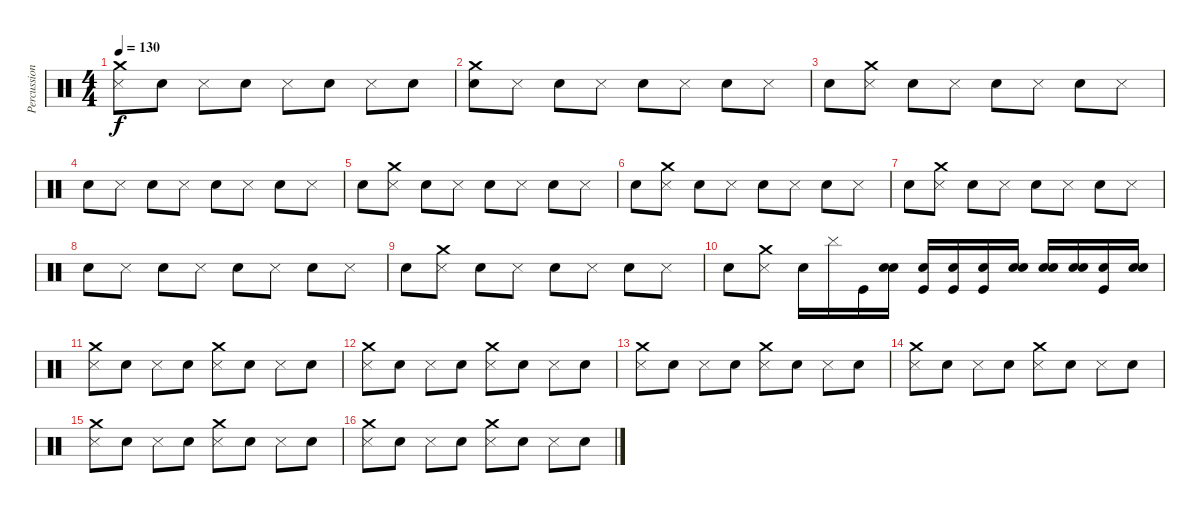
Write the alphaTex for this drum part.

\track ("Percussion" "Percussion") {instrument percussion}
\staff {score}
\articulation defaults
\ts (4 4)
\tempo 130
\clef neutral
\ks c
("Crash medium (hit)" "Metronome (hit)").8{dy f} "Electric Snare (hit)".8 "Metronome (hit)".8 "Electric Snare (hit)".8 "Metronome (hit)".8 "Electric Snare (hit)".8 "Metronome (hit)".8 "Electric Snare (hit)".8 |
("Crash medium (hit)" "Electric Snare (hit)").8 "Metronome (hit)".8 "Electric Snare (hit)".8 "Metronome (hit)".8 "Electric Snare (hit)".8 "Metronome (hit)".8 "Electric Snare (hit)".8 "Metronome (hit)".8 |
"Electric Snare (hit)".8 ("Crash medium (hit)" "Metronome (hit)").8 "Electric Snare (hit)".8 "Metronome (hit)".8 "Electric Snare (hit)".8 "Metronome (hit)".8 "Electric Snare (hit)".8 "Metronome (hit)".8 |
"Electric Snare (hit)".8 "Metronome (hit)".8 "Electric Snare (hit)".8 "Metronome (hit)".8 "Electric Snare (hit)".8 "Metronome (hit)".8 "Electric Snare (hit)".8 "Metronome (hit)".8 |
"Electric Snare (hit)".8 ("Crash medium (hit)" "Metronome (hit)").8 "Electric Snare (hit)".8 "Metronome (hit)".8 "Electric Snare (hit)".8 "Metronome (hit)".8 "Electric Snare (hit)".8 "Metronome (hit)".8 |
"Electric Snare (hit)".8 ("Crash medium (hit)" "Metronome (hit)").8 "Electric Snare (hit)".8 "Metronome (hit)".8 "Electric Snare (hit)".8 "Metronome (hit)".8 "Electric Snare (hit)".8 "Metronome (hit)".8 |
"Electric Snare (hit)".8 ("Crash medium (hit)" "Metronome (hit)").8 "Electric Snare (hit)".8 "Metronome (hit)".8 "Electric Snare (hit)".8 "Metronome (hit)".8 "Electric Snare (hit)".8 "Metronome (hit)".8 |
"Electric Snare (hit)".8 "Metronome (hit)".8 "Electric Snare (hit)".8 "Metronome (hit)".8 "Electric Snare (hit)".8 "Metronome (hit)".8 "Electric Snare (hit)".8 "Metronome (hit)".8 |
"Electric Snare (hit)".8 ("Crash medium (hit)" "Metronome (hit)").8 "Electric Snare (hit)".8 "Metronome (hit)".8 "Electric Snare (hit)".8 "Metronome (hit)".8 "Electric Snare (hit)".8 "Metronome (hit)".8 |
"Electric Snare (hit)".8 ("Crash medium (hit)" "Metronome (hit)").8 "Electric Snare (hit)".16 "Cymbal (hit)".16 "Kick (hit)".16 ("Snare (hit) 2" "Snare (hit) 2").16 ("Kick (hit)" "Snare (hit) 2").16 ("Kick (hit)" "Snare (hit) 2").16 ("Kick (hit)" "Electric Snare (hit)").16 ("Snare (hit) 2" "Electric Snare (hit)").16 ("Electric Snare (hit)" "Electric Snare (hit)").16 ("Electric Snare (hit)" "Electric Snare (hit)").16 ("Kick (hit)" "Electric Snare (hit)").16 ("Snare (hit) 2" "Electric Snare (hit)").16 |
("Crash medium (hit)" "Metronome (hit)").8 "Electric Snare (hit)".8 "Metronome (hit)".8 "Electric Snare (hit)".8 ("Crash medium (hit)" "Metronome (hit)").8 "Electric Snare (hit)".8 "Metronome (hit)".8 "Electric Snare (hit)".8 |
("Crash medium (hit)" "Metronome (hit)").8 "Electric Snare (hit)".8 "Metronome (hit)".8 "Electric Snare (hit)".8 ("Crash medium (hit)" "Metronome (hit)").8 "Electric Snare (hit)".8 "Metronome (hit)".8 "Electric Snare (hit)".8 |
("Crash medium (hit)" "Metronome (hit)").8 "Electric Snare (hit)".8 "Metronome (hit)".8 "Electric Snare (hit)".8 ("Crash medium (hit)" "Metronome (hit)").8 "Electric Snare (hit)".8 "Metronome (hit)".8 "Electric Snare (hit)".8 |
("Crash medium (hit)" "Metronome (hit)").8 "Electric Snare (hit)".8 "Metronome (hit)".8 "Electric Snare (hit)".8 ("Crash medium (hit)" "Metronome (hit)").8 "Electric Snare (hit)".8 "Metronome (hit)".8 "Electric Snare (hit)".8 |
("Crash medium (hit)" "Metronome (hit)").8 "Electric Snare (hit)".8 "Metronome (hit)".8 "Electric Snare (hit)".8 ("Crash medium (hit)" "Metronome (hit)").8 "Electric Snare (hit)".8 "Metronome (hit)".8 "Electric Snare (hit)".8 |
("Crash medium (hit)" "Metronome (hit)").8 "Electric Snare (hit)".8 "Metronome (hit)".8 "Electric Snare (hit)".8 ("Crash medium (hit)" "Metronome (hit)").8 "Electric Snare (hit)".8 "Metronome (hit)".8 "Electric Snare (hit)".8
